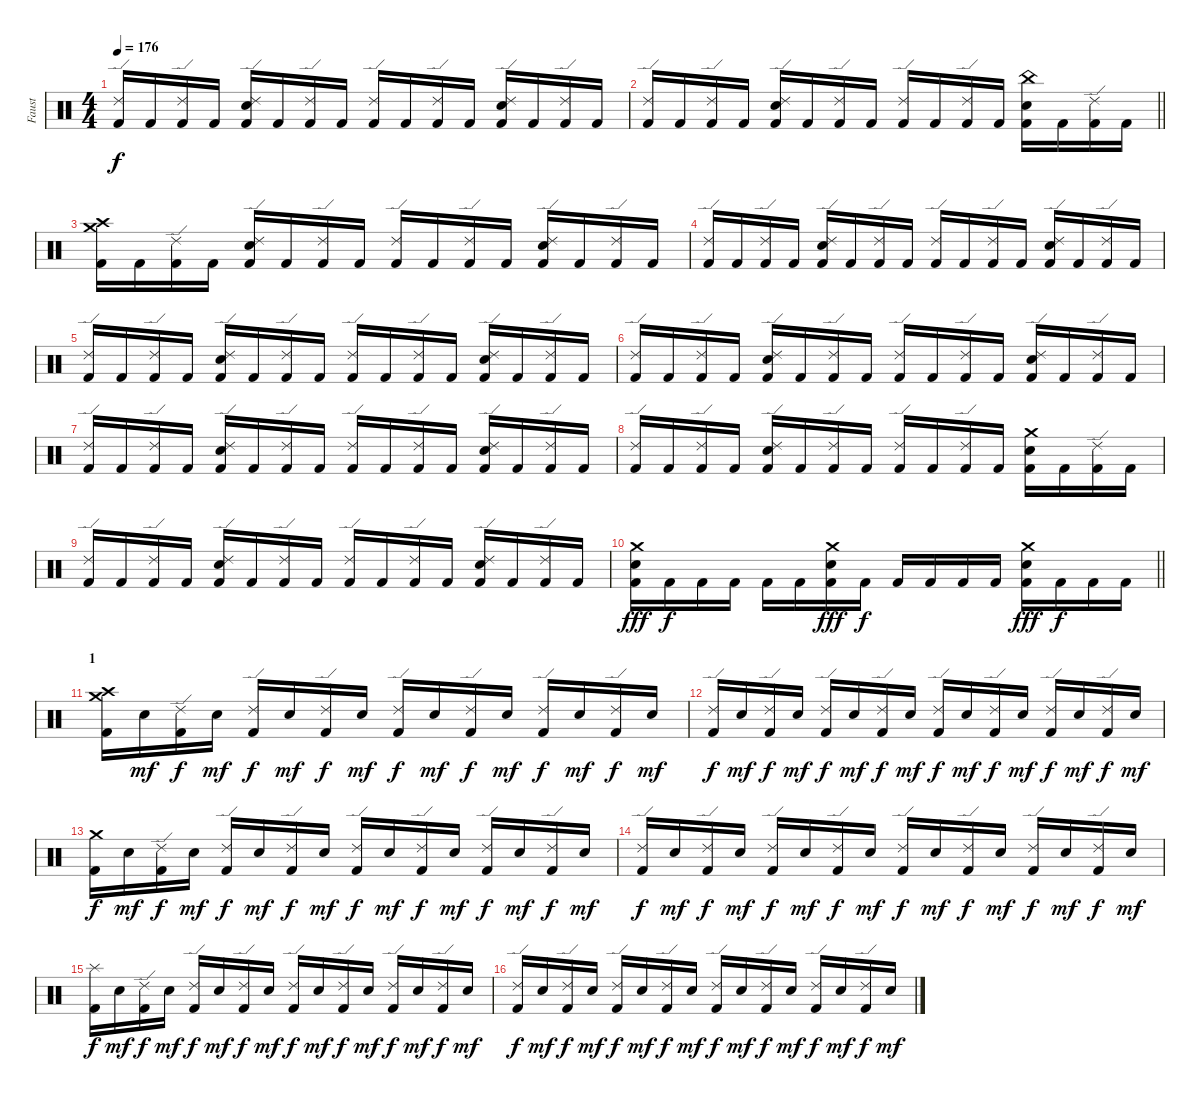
\track ("Faust" "Faust") {instrument percussion}
\staff {score}
\articulation defaults
\ts (4 4)
\tempo 176
\clef neutral
\ks c
("Ride (edge) 2" "Kick (hit) 2").16{dy f} "Kick (hit) 2".16 ("Ride (edge) 2" "Kick (hit) 2").16 "Kick (hit) 2".16 ("Ride (edge) 2" "Electric Snare (hit)" "Kick (hit) 2").16 "Kick (hit) 2".16 ("Ride (edge) 2" "Kick (hit) 2").16 "Kick (hit) 2".16 ("Ride (edge) 2" "Kick (hit) 2").16 "Kick (hit) 2".16 ("Ride (edge) 2" "Kick (hit) 2").16 "Kick (hit) 2".16 ("Ride (edge) 2" "Electric Snare (hit)" "Kick (hit) 2").16 "Kick (hit) 2".16 ("Ride (edge) 2" "Kick (hit) 2").16 "Kick (hit) 2".16 |
\barLineRight lightlight
("Ride (edge) 2" "Kick (hit) 2").16 "Kick (hit) 2".16 ("Ride (edge) 2" "Kick (hit) 2").16 "Kick (hit) 2".16 ("Ride (edge) 2" "Electric Snare (hit)" "Kick (hit) 2").16 "Kick (hit) 2".16 ("Ride (edge) 2" "Kick (hit) 2").16 "Kick (hit) 2".16 ("Ride (edge) 2" "Kick (hit) 2").16 "Kick (hit) 2".16 ("Ride (edge) 2" "Kick (hit) 2").16 "Kick (hit) 2".16 ("China (hit)" "Electric Snare (hit)" "Kick (hit) 2").16 "Kick (hit) 2".16 ("Ride (edge) 2" "Kick (hit) 2").16 "Kick (hit) 2".16 |
\section ("" "")
("Crash high (hit)" "Crash medium (hit)" "Kick (hit) 2").16 "Kick (hit) 2".16 ("Ride (edge) 2" "Kick (hit) 2").16 "Kick (hit) 2".16 ("Ride (edge) 2" "Electric Snare (hit)" "Kick (hit) 2").16 "Kick (hit) 2".16 ("Ride (edge) 2" "Kick (hit) 2").16 "Kick (hit) 2".16 ("Ride (edge) 2" "Kick (hit) 2").16 "Kick (hit) 2".16 ("Ride (edge) 2" "Kick (hit) 2").16 "Kick (hit) 2".16 ("Ride (edge) 2" "Electric Snare (hit)" "Kick (hit) 2").16 "Kick (hit) 2".16 ("Ride (edge) 2" "Kick (hit) 2").16 "Kick (hit) 2".16 |
("Ride (edge) 2" "Kick (hit) 2").16 "Kick (hit) 2".16 ("Ride (edge) 2" "Kick (hit) 2").16 "Kick (hit) 2".16 ("Ride (edge) 2" "Electric Snare (hit)" "Kick (hit) 2").16 "Kick (hit) 2".16 ("Ride (edge) 2" "Kick (hit) 2").16 "Kick (hit) 2".16 ("Ride (edge) 2" "Kick (hit) 2").16 "Kick (hit) 2".16 ("Ride (edge) 2" "Kick (hit) 2").16 "Kick (hit) 2".16 ("Ride (edge) 2" "Electric Snare (hit)" "Kick (hit) 2").16 "Kick (hit) 2".16 ("Ride (edge) 2" "Kick (hit) 2").16 "Kick (hit) 2".16 |
("Ride (edge) 2" "Kick (hit) 2").16 "Kick (hit) 2".16 ("Ride (edge) 2" "Kick (hit) 2").16 "Kick (hit) 2".16 ("Ride (edge) 2" "Electric Snare (hit)" "Kick (hit) 2").16 "Kick (hit) 2".16 ("Ride (edge) 2" "Kick (hit) 2").16 "Kick (hit) 2".16 ("Ride (edge) 2" "Kick (hit) 2").16 "Kick (hit) 2".16 ("Ride (edge) 2" "Kick (hit) 2").16 "Kick (hit) 2".16 ("Ride (edge) 2" "Electric Snare (hit)" "Kick (hit) 2").16 "Kick (hit) 2".16 ("Ride (edge) 2" "Kick (hit) 2").16 "Kick (hit) 2".16 |
("Ride (edge) 2" "Kick (hit) 2").16 "Kick (hit) 2".16 ("Ride (edge) 2" "Kick (hit) 2").16 "Kick (hit) 2".16 ("Ride (edge) 2" "Electric Snare (hit)" "Kick (hit) 2").16 "Kick (hit) 2".16 ("Ride (edge) 2" "Kick (hit) 2").16 "Kick (hit) 2".16 ("Ride (edge) 2" "Kick (hit) 2").16 "Kick (hit) 2".16 ("Ride (edge) 2" "Kick (hit) 2").16 "Kick (hit) 2".16 ("Ride (edge) 2" "Electric Snare (hit)" "Kick (hit) 2").16 "Kick (hit) 2".16 ("Ride (edge) 2" "Kick (hit) 2").16 "Kick (hit) 2".16 |
("Ride (edge) 2" "Kick (hit) 2").16 "Kick (hit) 2".16 ("Ride (edge) 2" "Kick (hit) 2").16 "Kick (hit) 2".16 ("Ride (edge) 2" "Electric Snare (hit)" "Kick (hit) 2").16 "Kick (hit) 2".16 ("Ride (edge) 2" "Kick (hit) 2").16 "Kick (hit) 2".16 ("Ride (edge) 2" "Kick (hit) 2").16 "Kick (hit) 2".16 ("Ride (edge) 2" "Kick (hit) 2").16 "Kick (hit) 2".16 ("Ride (edge) 2" "Electric Snare (hit)" "Kick (hit) 2").16 "Kick (hit) 2".16 ("Ride (edge) 2" "Kick (hit) 2").16 "Kick (hit) 2".16 |
("Ride (edge) 2" "Kick (hit) 2").16 "Kick (hit) 2".16 ("Ride (edge) 2" "Kick (hit) 2").16 "Kick (hit) 2".16 ("Ride (edge) 2" "Electric Snare (hit)" "Kick (hit) 2").16 "Kick (hit) 2".16 ("Ride (edge) 2" "Kick (hit) 2").16 "Kick (hit) 2".16 ("Ride (edge) 2" "Kick (hit) 2").16 "Kick (hit) 2".16 ("Ride (edge) 2" "Kick (hit) 2").16 "Kick (hit) 2".16 ("Crash medium (hit)" "Electric Snare (hit)" "Kick (hit) 2").16 "Kick (hit) 2".16 ("Ride (edge) 2" "Kick (hit) 2").16 "Kick (hit) 2".16 |
("Ride (edge) 2" "Kick (hit) 2").16 "Kick (hit) 2".16 ("Ride (edge) 2" "Kick (hit) 2").16 "Kick (hit) 2".16 ("Ride (edge) 2" "Electric Snare (hit)" "Kick (hit) 2").16 "Kick (hit) 2".16 ("Ride (edge) 2" "Kick (hit) 2").16 "Kick (hit) 2".16 ("Ride (edge) 2" "Kick (hit) 2").16 "Kick (hit) 2".16 ("Ride (edge) 2" "Kick (hit) 2").16 "Kick (hit) 2".16 ("Ride (edge) 2" "Electric Snare (hit)" "Kick (hit) 2").16 "Kick (hit) 2".16 ("Ride (edge) 2" "Kick (hit) 2").16 "Kick (hit) 2".16 |
\barLineRight lightlight
("Crash medium (hit)" "Electric Snare (hit)" "Kick (hit) 2").16{dy fff} "Kick (hit) 2".16{dy f} "Kick (hit) 2".16 "Kick (hit) 2".16 "Kick (hit) 2".16 "Kick (hit) 2".16 ("Crash medium (hit)" "Electric Snare (hit)" "Kick (hit) 2").16{dy fff} "Kick (hit) 2".16{dy f} "Kick (hit) 2".16 "Kick (hit) 2".16 "Kick (hit) 2".16 "Kick (hit) 2".16 ("Crash medium (hit)" "Electric Snare (hit)" "Kick (hit) 2").16{dy fff} "Kick (hit) 2".16{dy f} "Kick (hit) 2".16 "Kick (hit) 2".16 |
\section ("" "1")
("Crash high (hit)" "Crash medium (hit)" "Kick (hit) 2").16 "Electric Snare (hit)".16{dy mf} ("Ride (edge) 2" "Kick (hit) 2").16{dy f} "Electric Snare (hit)".16{dy mf} ("Ride (edge) 2" "Kick (hit) 2").16{dy f} "Electric Snare (hit)".16{dy mf} ("Ride (edge) 2" "Kick (hit) 2").16{dy f} "Electric Snare (hit)".16{dy mf} ("Ride (edge) 2" "Kick (hit) 2").16{dy f} "Electric Snare (hit)".16{dy mf} ("Ride (edge) 2" "Kick (hit) 2").16{dy f} "Electric Snare (hit)".16{dy mf} ("Ride (edge) 2" "Kick (hit) 2").16{dy f} "Electric Snare (hit)".16{dy mf} ("Ride (edge) 2" "Kick (hit) 2").16{dy f} "Electric Snare (hit)".16{dy mf} |
("Ride (edge) 2" "Kick (hit) 2").16{dy f} "Electric Snare (hit)".16{dy mf} ("Ride (edge) 2" "Kick (hit) 2").16{dy f} "Electric Snare (hit)".16{dy mf} ("Ride (edge) 2" "Kick (hit) 2").16{dy f} "Electric Snare (hit)".16{dy mf} ("Ride (edge) 2" "Kick (hit) 2").16{dy f} "Electric Snare (hit)".16{dy mf} ("Ride (edge) 2" "Kick (hit) 2").16{dy f} "Electric Snare (hit)".16{dy mf} ("Ride (edge) 2" "Kick (hit) 2").16{dy f} "Electric Snare (hit)".16{dy mf} ("Ride (edge) 2" "Kick (hit) 2").16{dy f} "Electric Snare (hit)".16{dy mf} ("Ride (edge) 2" "Kick (hit) 2").16{dy f} "Electric Snare (hit)".16{dy mf} |
("Crash medium (hit)" "Kick (hit) 2").16{dy f} "Electric Snare (hit)".16{dy mf} ("Ride (edge) 2" "Kick (hit) 2").16{dy f} "Electric Snare (hit)".16{dy mf} ("Ride (edge) 2" "Kick (hit) 2").16{dy f} "Electric Snare (hit)".16{dy mf} ("Ride (edge) 2" "Kick (hit) 2").16{dy f} "Electric Snare (hit)".16{dy mf} ("Ride (edge) 2" "Kick (hit) 2").16{dy f} "Electric Snare (hit)".16{dy mf} ("Ride (edge) 2" "Kick (hit) 2").16{dy f} "Electric Snare (hit)".16{dy mf} ("Ride (edge) 2" "Kick (hit) 2").16{dy f} "Electric Snare (hit)".16{dy mf} ("Ride (edge) 2" "Kick (hit) 2").16{dy f} "Electric Snare (hit)".16{dy mf} |
("Ride (edge) 2" "Kick (hit) 2").16{dy f} "Electric Snare (hit)".16{dy mf} ("Ride (edge) 2" "Kick (hit) 2").16{dy f} "Electric Snare (hit)".16{dy mf} ("Ride (edge) 2" "Kick (hit) 2").16{dy f} "Electric Snare (hit)".16{dy mf} ("Ride (edge) 2" "Kick (hit) 2").16{dy f} "Electric Snare (hit)".16{dy mf} ("Ride (edge) 2" "Kick (hit) 2").16{dy f} "Electric Snare (hit)".16{dy mf} ("Ride (edge) 2" "Kick (hit) 2").16{dy f} "Electric Snare (hit)".16{dy mf} ("Ride (edge) 2" "Kick (hit) 2").16{dy f} "Electric Snare (hit)".16{dy mf} ("Ride (edge) 2" "Kick (hit) 2").16{dy f} "Electric Snare (hit)".16{dy mf} |
("Splash (hit)" "Kick (hit) 2").16{dy f} "Electric Snare (hit)".16{dy mf} ("Ride (edge) 2" "Kick (hit) 2").16{dy f} "Electric Snare (hit)".16{dy mf} ("Ride (edge) 2" "Kick (hit) 2").16{dy f} "Electric Snare (hit)".16{dy mf} ("Ride (edge) 2" "Kick (hit) 2").16{dy f} "Electric Snare (hit)".16{dy mf} ("Ride (edge) 2" "Kick (hit) 2").16{dy f} "Electric Snare (hit)".16{dy mf} ("Ride (edge) 2" "Kick (hit) 2").16{dy f} "Electric Snare (hit)".16{dy mf} ("Ride (edge) 2" "Kick (hit) 2").16{dy f} "Electric Snare (hit)".16{dy mf} ("Ride (edge) 2" "Kick (hit) 2").16{dy f} "Electric Snare (hit)".16{dy mf} |
("Ride (edge) 2" "Kick (hit) 2").16{dy f} "Electric Snare (hit)".16{dy mf} ("Ride (edge) 2" "Kick (hit) 2").16{dy f} "Electric Snare (hit)".16{dy mf} ("Ride (edge) 2" "Kick (hit) 2").16{dy f} "Electric Snare (hit)".16{dy mf} ("Ride (edge) 2" "Kick (hit) 2").16{dy f} "Electric Snare (hit)".16{dy mf} ("Ride (edge) 2" "Kick (hit) 2").16{dy f} "Electric Snare (hit)".16{dy mf} ("Ride (edge) 2" "Kick (hit) 2").16{dy f} "Electric Snare (hit)".16{dy mf} ("Ride (edge) 2" "Kick (hit) 2").16{dy f} "Electric Snare (hit)".16{dy mf} ("Ride (edge) 2" "Kick (hit) 2").16{dy f} "Electric Snare (hit)".16{dy mf}
